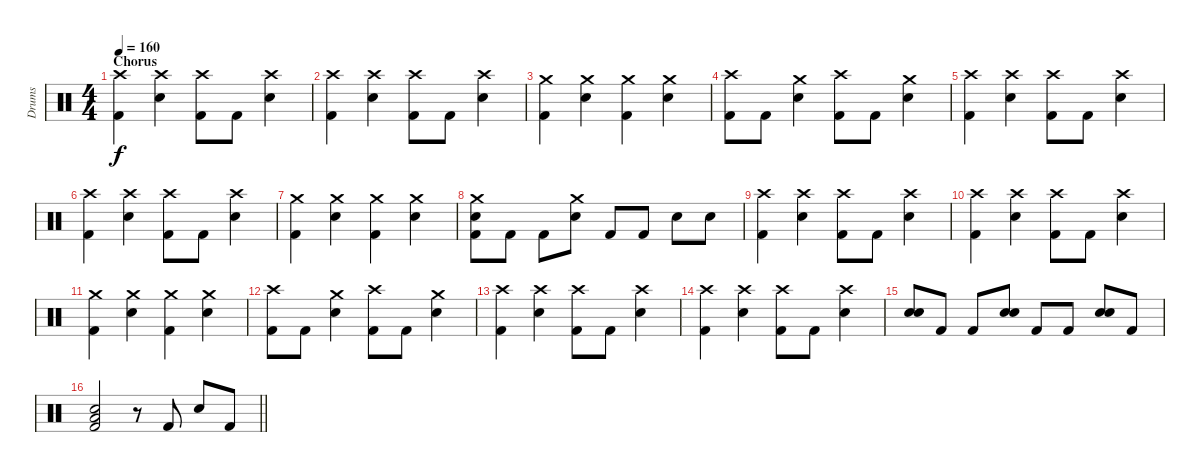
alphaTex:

\track ("Drums " "Drums ") {instrument percussion}
\staff {score}
\articulation defaults
\ts (4 4)
\section ("" "Chorus")
\tempo 160
\clef neutral
\ks c
("Crash high (hit)" "Kick (hit) 2").4{dy f} ("Crash high (hit)" "Snare (hit) 2").4 ("Crash high (hit)" "Kick (hit) 2").8 "Kick (hit) 2".8 ("Crash high (hit)" "Snare (hit) 2").4 |
("Crash high (hit)" "Kick (hit) 2").4 ("Crash high (hit)" "Snare (hit) 2").4 ("Crash high (hit)" "Kick (hit) 2").8 "Kick (hit) 2".8 ("Crash high (hit)" "Snare (hit) 2").4 |
("Crash medium (hit)" "Kick (hit) 2").4 ("Crash medium (hit)" "Snare (hit) 2").4 ("Crash medium (hit)" "Kick (hit) 2").4 ("Crash medium (hit)" "Snare (hit) 2").4 |
("Crash high (hit)" "Kick (hit) 2").8 "Kick (hit) 2".8 ("Crash medium (hit)" "Snare (hit) 2").4 ("Crash high (hit)" "Kick (hit) 2").8 "Kick (hit) 2".8 ("Crash medium (hit)" "Snare (hit) 2").4 |
("Crash high (hit)" "Kick (hit) 2").4 ("Crash high (hit)" "Snare (hit) 2").4 ("Crash high (hit)" "Kick (hit) 2").8 "Kick (hit) 2".8 ("Crash high (hit)" "Snare (hit) 2").4 |
("Crash high (hit)" "Kick (hit) 2").4 ("Crash high (hit)" "Snare (hit) 2").4 ("Crash high (hit)" "Kick (hit) 2").8 "Kick (hit) 2".8 ("Crash high (hit)" "Snare (hit) 2").4 |
("Crash medium (hit)" "Kick (hit) 2").4 ("Crash medium (hit)" "Snare (hit) 2").4 ("Crash medium (hit)" "Kick (hit) 2").4 ("Crash medium (hit)" "Snare (hit) 2").4 |
("Crash medium (hit)" "Snare (hit) 2" "Kick (hit) 2").8 "Kick (hit) 2".8 "Kick (hit) 2".8 ("Crash medium (hit)" "Snare (hit) 2").8 "Kick (hit) 2".8 "Kick (hit) 2".8 "Snare (hit) 2".8 "Snare (hit) 2".8 |
("Crash high (hit)" "Kick (hit) 2").4 ("Crash high (hit)" "Snare (hit) 2").4 ("Crash high (hit)" "Kick (hit) 2").8 "Kick (hit) 2".8 ("Crash high (hit)" "Snare (hit) 2").4 |
("Crash high (hit)" "Kick (hit) 2").4 ("Crash high (hit)" "Snare (hit) 2").4 ("Crash high (hit)" "Kick (hit) 2").8 "Kick (hit) 2".8 ("Crash high (hit)" "Snare (hit) 2").4 |
("Crash medium (hit)" "Kick (hit) 2").4 ("Crash medium (hit)" "Snare (hit) 2").4 ("Crash medium (hit)" "Kick (hit) 2").4 ("Crash medium (hit)" "Snare (hit) 2").4 |
("Crash high (hit)" "Kick (hit) 2").8 "Kick (hit) 2".8 ("Crash medium (hit)" "Snare (hit) 2").4 ("Crash high (hit)" "Kick (hit) 2").8 "Kick (hit) 2".8 ("Crash medium (hit)" "Snare (hit) 2").4 |
("Crash high (hit)" "Kick (hit) 2").4 ("Crash high (hit)" "Snare (hit) 2").4 ("Crash high (hit)" "Kick (hit) 2").8 "Kick (hit) 2".8 ("Crash high (hit)" "Snare (hit) 2").4 |
("Crash high (hit)" "Kick (hit) 2").4 ("Crash high (hit)" "Snare (hit) 2").4 ("Crash high (hit)" "Kick (hit) 2").8 "Kick (hit) 2".8 ("Crash high (hit)" "Snare (hit) 2").4 |
("Snare (hit) 2" "Snare (hit) 2").8 "Kick (hit) 2".8 "Kick (hit) 2".8 ("Snare (hit) 2" "Snare (hit) 2").8 "Kick (hit) 2".8 "Kick (hit) 2".8 ("Snare (hit) 2" "Snare (hit) 2").8 "Kick (hit) 2".8 |
\barLineRight lightlight
("Low Floor Tom (hit)" "Snare (hit) 2" "Kick (hit) 2").2 r.8 "Kick (hit) 2".8 "Snare (hit) 2".8 "Kick (hit) 2".8
